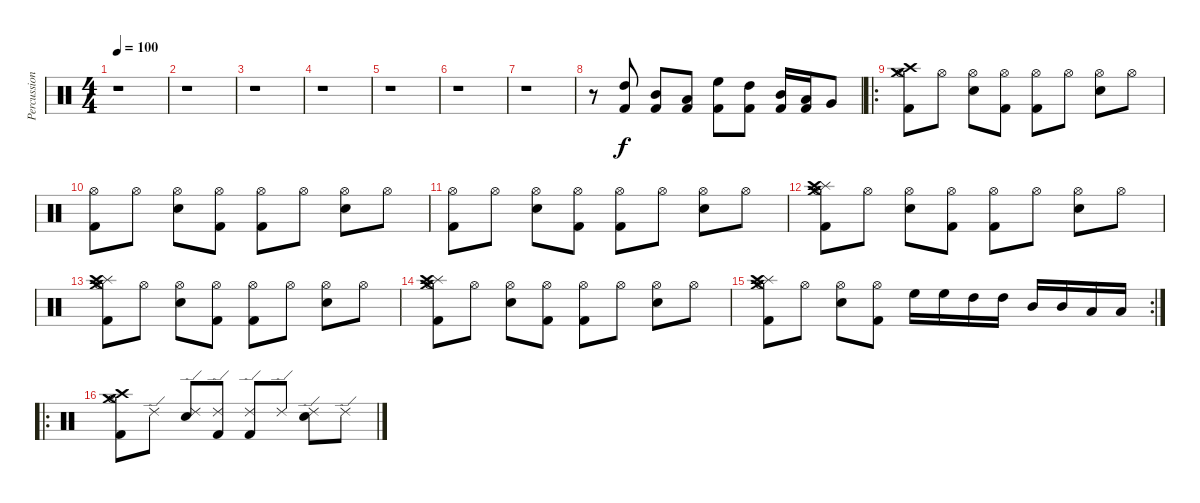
\track ("Percussion" "Percussion") {instrument percussion}
\staff {score}
\articulation defaults
\ts (4 4)
\tempo 100
\clef neutral
\ks c
r.1{dy f} |
r.1 |
r.1 |
r.1 |
r.1 |
r.1 |
r.1 |
r.8 ("High Tom (hit)" "Kick (hit) 2").8 ("Mid Tom (hit)" "Kick (hit) 2").8 ("Low Tom (hit)" "Kick (hit) 2").8 ("High Floor Tom (hit)" "Kick (hit) 2").8 ("High Tom (hit)" "Kick (hit) 2").8 ("Mid Tom (hit)" "Kick (hit) 2").16 ("Low Tom (hit)" "Kick (hit) 2").16 "Very Low Tom (hit)".8 |
\ro
("Crash high (hit)" "Crash medium (hit)" "Kick (hit) 2" "Hi-Hat (open)").8 "Hi-Hat (open)".8 ("Hi-Hat (open)" "Electric Snare (hit)").8 ("Hi-Hat (open)" "Kick (hit) 2").8 ("Hi-Hat (open)" "Kick (hit) 2").8 "Hi-Hat (open)".8 ("Hi-Hat (open)" "Electric Snare (hit)").8 "Hi-Hat (open)".8 |
("Kick (hit) 2" "Hi-Hat (open)").8 "Hi-Hat (open)".8 ("Hi-Hat (open)" "Electric Snare (hit)").8 ("Hi-Hat (open)" "Kick (hit) 2").8 ("Hi-Hat (open)" "Kick (hit) 2").8 "Hi-Hat (open)".8 ("Hi-Hat (open)" "Electric Snare (hit)").8 "Hi-Hat (open)".8 |
("Kick (hit) 2" "Hi-Hat (open)").8 "Hi-Hat (open)".8 ("Hi-Hat (open)" "Electric Snare (hit)").8 ("Hi-Hat (open)" "Kick (hit) 2").8 ("Hi-Hat (open)" "Kick (hit) 2").8 "Hi-Hat (open)".8 ("Hi-Hat (open)" "Electric Snare (hit)").8 "Hi-Hat (open)".8 |
("Splash (hit)" "Crash high (hit)" "Crash medium (hit)" "Hi-Hat (open)" "Kick (hit) 2").8 "Hi-Hat (open)".8 ("Hi-Hat (open)" "Electric Snare (hit)").8 ("Hi-Hat (open)" "Kick (hit) 2").8 ("Hi-Hat (open)" "Kick (hit) 2").8 "Hi-Hat (open)".8 ("Hi-Hat (open)" "Electric Snare (hit)").8 "Hi-Hat (open)".8 |
("Splash (hit)" "Crash high (hit)" "Crash medium (hit)" "Hi-Hat (open)" "Kick (hit) 2").8 "Hi-Hat (open)".8 ("Hi-Hat (open)" "Electric Snare (hit)").8 ("Hi-Hat (open)" "Kick (hit) 2").8 ("Hi-Hat (open)" "Kick (hit) 2").8 "Hi-Hat (open)".8 ("Hi-Hat (open)" "Electric Snare (hit)").8 "Hi-Hat (open)".8 |
("Splash (hit)" "Crash high (hit)" "Crash medium (hit)" "Hi-Hat (open)" "Kick (hit) 2").8 "Hi-Hat (open)".8 ("Hi-Hat (open)" "Electric Snare (hit)").8 ("Hi-Hat (open)" "Kick (hit) 2").8 ("Hi-Hat (open)" "Kick (hit) 2").8 "Hi-Hat (open)".8 ("Hi-Hat (open)" "Electric Snare (hit)").8 "Hi-Hat (open)".8 |
\rc 2
("Splash (hit)" "Crash high (hit)" "Crash medium (hit)" "Hi-Hat (open)" "Kick (hit) 2").8 "Hi-Hat (open)".8 ("Hi-Hat (open)" "Electric Snare (hit)").8 ("Hi-Hat (open)" "Kick (hit) 2").8 "High Floor Tom (hit)".16 "High Floor Tom (hit)".16 "High Tom (hit)".16 "High Tom (hit)".16 "Mid Tom (hit)".16 "Mid Tom (hit)".16 "Low Tom (hit)".16 "Low Tom (hit)".16 |
\ro
("Crash high (hit)" "Crash medium (hit)" "Kick (hit) 2" "Hi-Hat (open)").8 "Ride (edge) 2".8 ("Ride (edge) 2" "Electric Snare (hit)").8 ("Ride (edge) 2" "Kick (hit) 2").8 ("Ride (edge) 2" "Kick (hit) 2").8 "Ride (edge) 2".8 ("Ride (edge) 2" "Electric Snare (hit)").8 "Ride (edge) 2".8
